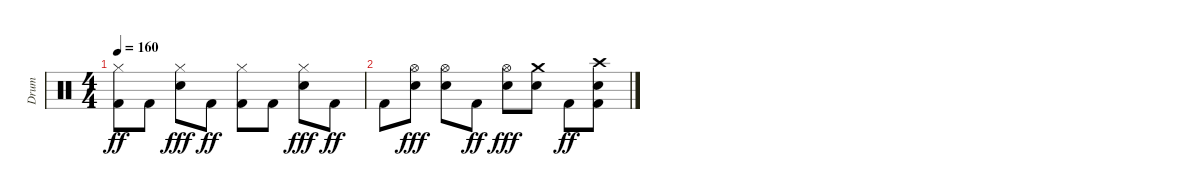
\track ("Drum" "Drum") {instrument percussion}
\staff {score}
\articulation defaults
\ts (4 4)
\tempo 160
\clef neutral
\ks c
("Hi-Hat (closed)" "Kick (hit) 2").8{dy ff} "Kick (hit) 2".8 ("Hi-Hat (closed)" "Snare (hit) 2").8{dy fff} "Kick (hit) 2".8{dy ff} ("Hi-Hat (closed)" "Kick (hit) 2").8 "Kick (hit) 2".8 ("Hi-Hat (closed)" "Snare (hit) 2").8{dy fff} "Kick (hit) 2".8{dy ff} |
"Kick (hit) 2".8 ("Hi-Hat (open)" "Snare (hit) 2").8{dy fff} ("Hi-Hat (open)" "Snare (hit) 2").8 "Kick (hit) 2".8{dy ff} ("Hi-Hat (open)" "Snare (hit) 2").8{dy fff} ("Crash medium (hit)" "Snare (hit) 2").8 "Kick (hit) 2".8{dy ff} ("Crash high (hit)" "Snare (hit) 2" "Kick (hit) 2").8
